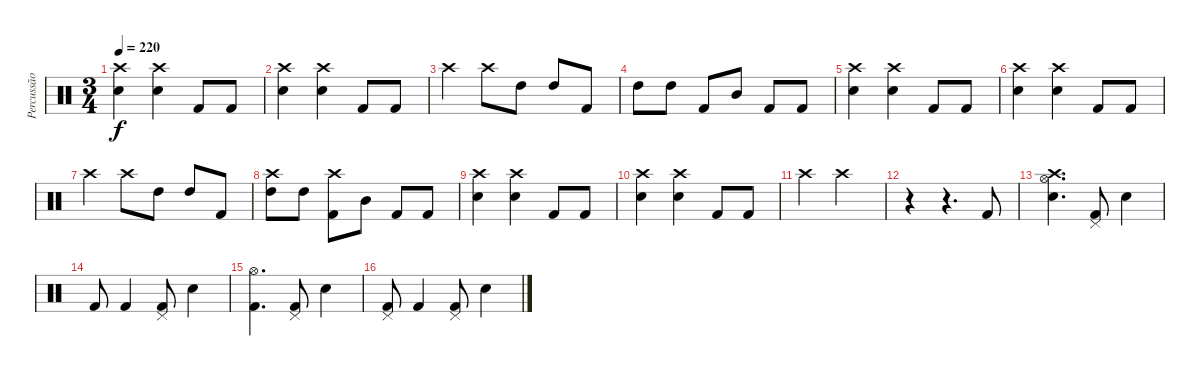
\track ("Percussão" "Percussão") {instrument percussion}
\staff {score}
\articulation defaults
\ts (3 4)
\tempo 220
\clef neutral
\ks c
("Crash high (hit)" "Snare (hit) 2").4{dy f} ("Crash high (hit)" "Snare (hit) 2").4 "Kick (hit) 2".8 "Kick (hit) 2".8 |
("Crash high (hit)" "Snare (hit) 2").4 ("Crash high (hit)" "Snare (hit) 2").4 "Kick (hit) 2".8 "Kick (hit) 2".8 |
"Crash high (hit)".4 "Crash high (hit)".8 "High Tom (hit)".8 "High Tom (hit)".8 "Kick (hit) 2".8 |
"High Tom (hit)".8 "High Tom (hit)".8 "Kick (hit) 2".8 "Mid Tom (hit)".8 "Kick (hit) 2".8 "Kick (hit) 2".8 |
("Crash high (hit)" "Snare (hit) 2").4 ("Crash high (hit)" "Snare (hit) 2").4 "Kick (hit) 2".8 "Kick (hit) 2".8 |
("Crash high (hit)" "Snare (hit) 2").4 ("Crash high (hit)" "Snare (hit) 2").4 "Kick (hit) 2".8 "Kick (hit) 2".8 |
"Crash high (hit)".4 "Crash high (hit)".8 "High Tom (hit)".8 "High Tom (hit)".8 "Kick (hit) 2".8 |
("Crash high (hit)" "High Tom (hit)").8 "High Tom (hit)".8 ("Crash high (hit)" "Kick (hit) 2").8 "Mid Tom (hit)".8 "Kick (hit) 2".8 "Kick (hit) 2".8 |
("Crash high (hit)" "Snare (hit) 2").4 ("Crash high (hit)" "Snare (hit) 2").4 "Kick (hit) 2".8 "Kick (hit) 2".8 |
("Crash high (hit)" "Snare (hit) 2").4 ("Crash high (hit)" "Snare (hit) 2").4 "Kick (hit) 2".8 "Kick (hit) 2".8 |
"Crash high (hit)".4 "Crash high (hit)".2 |
r.4 r.4{d} "Kick (hit) 2".8 |
("Hi-Hat (open)" "Snare (hit) 2" "Crash high (hit)").4{d} ("Pedal Hi-Hat (hit)" "Kick (hit) 2").8 "Snare (hit) 2".4 |
"Kick (hit) 2".8 "Kick (hit) 2".4 ("Pedal Hi-Hat (hit)" "Kick (hit) 2").8 "Snare (hit) 2".4 |
("Hi-Hat (open)" "Kick (hit) 2").4{d} ("Pedal Hi-Hat (hit)" "Kick (hit) 2").8 "Snare (hit) 2".4 |
("Pedal Hi-Hat (hit)" "Kick (hit) 2").8 "Kick (hit) 2".4 ("Pedal Hi-Hat (hit)" "Kick (hit) 2").8 "Snare (hit) 2".4
